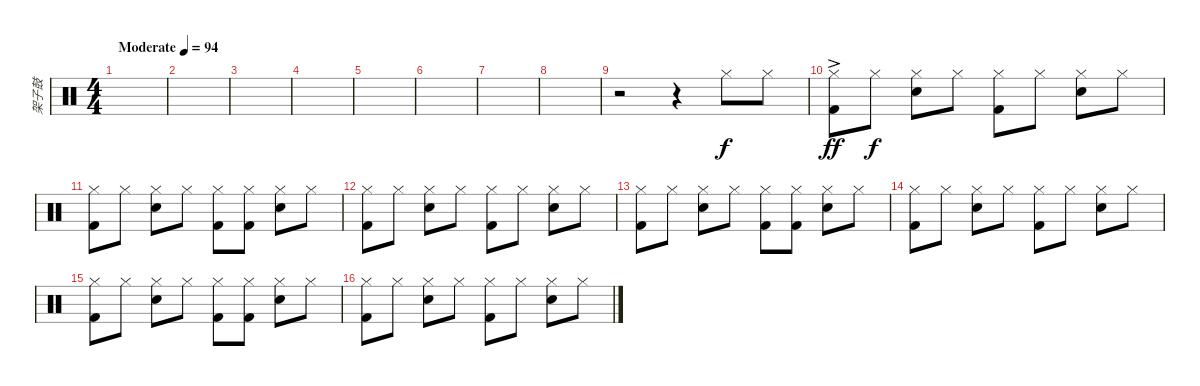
\track ("架子鼓" "架子鼓") {instrument percussion}
\staff {score}
\articulation defaults
\ts (4 4)
\tempo (94 "Moderate")
\clef neutral
\ks c
|
|
|
|
|
|
|
|
r.2 r.4 "Hi-Hat (closed)".8 "Hi-Hat (closed)".8 |
("Kick (hit) 2"{ac} "Hi-Hat (closed)"{ac}).8{dy ff} "Hi-Hat (closed)".8{dy f} ("Hi-Hat (closed)" "Electric Snare (hit)").8 "Hi-Hat (closed)".8 ("Kick (hit) 2" "Hi-Hat (closed)").8 "Hi-Hat (closed)".8 ("Hi-Hat (closed)" "Electric Snare (hit)").8 "Hi-Hat (closed)".8 |
("Kick (hit) 2" "Hi-Hat (closed)").8 "Hi-Hat (closed)".8 ("Hi-Hat (closed)" "Electric Snare (hit)").8 "Hi-Hat (closed)".8 ("Kick (hit) 2" "Hi-Hat (closed)").8 ("Kick (hit) 2" "Hi-Hat (closed)").8 ("Hi-Hat (closed)" "Electric Snare (hit)").8 "Hi-Hat (closed)".8 |
("Kick (hit) 2" "Hi-Hat (closed)").8 "Hi-Hat (closed)".8 ("Hi-Hat (closed)" "Electric Snare (hit)").8 "Hi-Hat (closed)".8 ("Kick (hit) 2" "Hi-Hat (closed)").8 "Hi-Hat (closed)".8 ("Hi-Hat (closed)" "Electric Snare (hit)").8 "Hi-Hat (closed)".8 |
("Kick (hit) 2" "Hi-Hat (closed)").8 "Hi-Hat (closed)".8 ("Hi-Hat (closed)" "Electric Snare (hit)").8 "Hi-Hat (closed)".8 ("Kick (hit) 2" "Hi-Hat (closed)").8 ("Kick (hit) 2" "Hi-Hat (closed)").8 ("Hi-Hat (closed)" "Electric Snare (hit)").8 "Hi-Hat (closed)".8 |
("Kick (hit) 2" "Hi-Hat (closed)").8 "Hi-Hat (closed)".8 ("Hi-Hat (closed)" "Electric Snare (hit)").8 "Hi-Hat (closed)".8 ("Kick (hit) 2" "Hi-Hat (closed)").8 "Hi-Hat (closed)".8 ("Hi-Hat (closed)" "Electric Snare (hit)").8 "Hi-Hat (closed)".8 |
("Kick (hit) 2" "Hi-Hat (closed)").8 "Hi-Hat (closed)".8 ("Hi-Hat (closed)" "Electric Snare (hit)").8 "Hi-Hat (closed)".8 ("Kick (hit) 2" "Hi-Hat (closed)").8 ("Kick (hit) 2" "Hi-Hat (closed)").8 ("Hi-Hat (closed)" "Electric Snare (hit)").8 "Hi-Hat (closed)".8 |
("Kick (hit) 2" "Hi-Hat (closed)").8 "Hi-Hat (closed)".8 ("Hi-Hat (closed)" "Electric Snare (hit)").8 "Hi-Hat (closed)".8 ("Kick (hit) 2" "Hi-Hat (closed)").8 "Hi-Hat (closed)".8 ("Hi-Hat (closed)" "Electric Snare (hit)").8 "Hi-Hat (closed)".8
